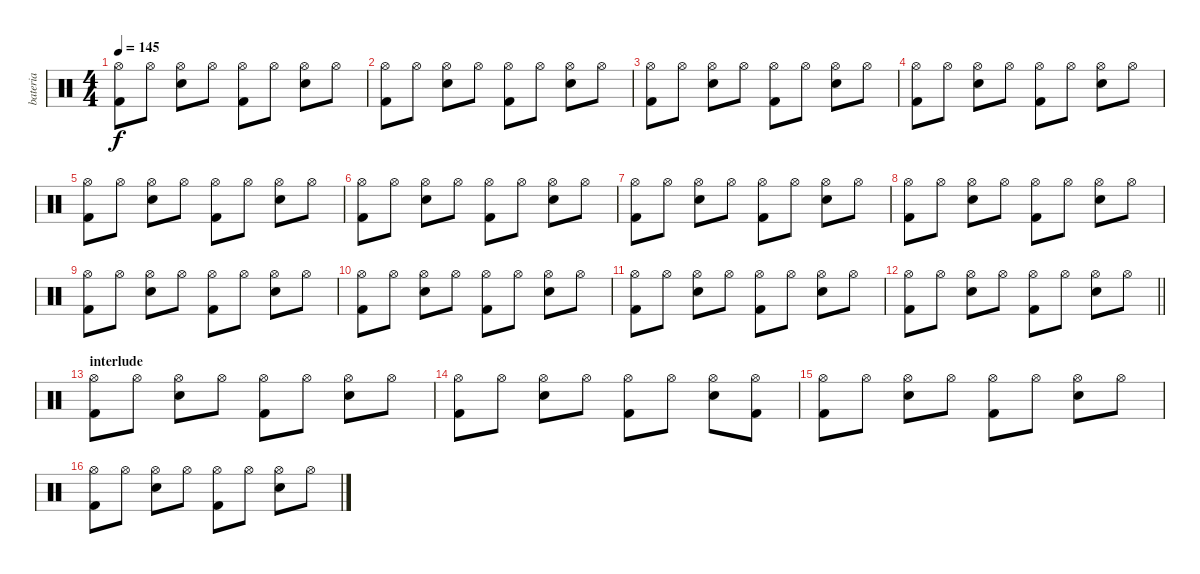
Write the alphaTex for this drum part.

\track ("bateria" "bateria") {instrument percussion}
\staff {score}
\articulation defaults
\ts (4 4)
\tempo 145
\clef neutral
\ks c
("Hi-Hat (open)" "Kick (hit) 2").8{dy f} "Hi-Hat (open)".8 ("Hi-Hat (open)" "Electric Snare (hit)").8 "Hi-Hat (open)".8 ("Hi-Hat (open)" "Kick (hit) 2").8 "Hi-Hat (open)".8 ("Hi-Hat (open)" "Electric Snare (hit)").8 "Hi-Hat (open)".8 |
("Hi-Hat (open)" "Kick (hit) 2").8 "Hi-Hat (open)".8 ("Hi-Hat (open)" "Electric Snare (hit)").8 "Hi-Hat (open)".8 ("Hi-Hat (open)" "Kick (hit) 2").8 "Hi-Hat (open)".8 ("Hi-Hat (open)" "Electric Snare (hit)").8 "Hi-Hat (open)".8 |
("Hi-Hat (open)" "Kick (hit) 2").8 "Hi-Hat (open)".8 ("Hi-Hat (open)" "Electric Snare (hit)").8 "Hi-Hat (open)".8 ("Hi-Hat (open)" "Kick (hit) 2").8 "Hi-Hat (open)".8 ("Hi-Hat (open)" "Electric Snare (hit)").8 "Hi-Hat (open)".8 |
("Hi-Hat (open)" "Kick (hit) 2").8 "Hi-Hat (open)".8 ("Hi-Hat (open)" "Electric Snare (hit)").8 "Hi-Hat (open)".8 ("Hi-Hat (open)" "Kick (hit) 2").8 "Hi-Hat (open)".8 ("Hi-Hat (open)" "Electric Snare (hit)").8 "Hi-Hat (open)".8 |
("Hi-Hat (open)" "Kick (hit) 2").8 "Hi-Hat (open)".8 ("Hi-Hat (open)" "Electric Snare (hit)").8 "Hi-Hat (open)".8 ("Hi-Hat (open)" "Kick (hit) 2").8 "Hi-Hat (open)".8 ("Hi-Hat (open)" "Electric Snare (hit)").8 "Hi-Hat (open)".8 |
("Hi-Hat (open)" "Kick (hit) 2").8 "Hi-Hat (open)".8 ("Hi-Hat (open)" "Electric Snare (hit)").8 "Hi-Hat (open)".8 ("Hi-Hat (open)" "Kick (hit) 2").8 "Hi-Hat (open)".8 ("Hi-Hat (open)" "Electric Snare (hit)").8 "Hi-Hat (open)".8 |
("Hi-Hat (open)" "Kick (hit) 2").8 "Hi-Hat (open)".8 ("Hi-Hat (open)" "Electric Snare (hit)").8 "Hi-Hat (open)".8 ("Hi-Hat (open)" "Kick (hit) 2").8 "Hi-Hat (open)".8 ("Hi-Hat (open)" "Electric Snare (hit)").8 "Hi-Hat (open)".8 |
("Hi-Hat (open)" "Kick (hit) 2").8 "Hi-Hat (open)".8 ("Hi-Hat (open)" "Electric Snare (hit)").8 "Hi-Hat (open)".8 ("Hi-Hat (open)" "Kick (hit) 2").8 "Hi-Hat (open)".8 ("Hi-Hat (open)" "Electric Snare (hit)").8 "Hi-Hat (open)".8 |
("Hi-Hat (open)" "Kick (hit) 2").8 "Hi-Hat (open)".8 ("Hi-Hat (open)" "Electric Snare (hit)").8 "Hi-Hat (open)".8 ("Hi-Hat (open)" "Kick (hit) 2").8 "Hi-Hat (open)".8 ("Hi-Hat (open)" "Electric Snare (hit)").8 "Hi-Hat (open)".8 |
("Hi-Hat (open)" "Kick (hit) 2").8 "Hi-Hat (open)".8 ("Hi-Hat (open)" "Electric Snare (hit)").8 "Hi-Hat (open)".8 ("Hi-Hat (open)" "Kick (hit) 2").8 "Hi-Hat (open)".8 ("Hi-Hat (open)" "Electric Snare (hit)").8 "Hi-Hat (open)".8 |
("Hi-Hat (open)" "Kick (hit) 2").8 "Hi-Hat (open)".8 ("Hi-Hat (open)" "Electric Snare (hit)").8 "Hi-Hat (open)".8 ("Hi-Hat (open)" "Kick (hit) 2").8 "Hi-Hat (open)".8 ("Hi-Hat (open)" "Electric Snare (hit)").8 "Hi-Hat (open)".8 |
\barLineRight lightlight
("Hi-Hat (open)" "Kick (hit) 2").8 "Hi-Hat (open)".8 ("Hi-Hat (open)" "Electric Snare (hit)").8 "Hi-Hat (open)".8 ("Hi-Hat (open)" "Kick (hit) 2").8 "Hi-Hat (open)".8 ("Hi-Hat (open)" "Electric Snare (hit)").8 "Hi-Hat (open)".8 |
\section ("" "interlude")
("Hi-Hat (open)" "Kick (hit) 2").8 "Hi-Hat (open)".8 ("Hi-Hat (open)" "Electric Snare (hit)").8 "Hi-Hat (open)".8 ("Hi-Hat (open)" "Kick (hit) 2").8 "Hi-Hat (open)".8 ("Hi-Hat (open)" "Electric Snare (hit)").8 "Hi-Hat (open)".8 |
("Hi-Hat (open)" "Kick (hit) 2").8 "Hi-Hat (open)".8 ("Hi-Hat (open)" "Electric Snare (hit)").8 "Hi-Hat (open)".8 ("Hi-Hat (open)" "Kick (hit) 2").8 "Hi-Hat (open)".8 ("Hi-Hat (open)" "Electric Snare (hit)").8 ("Hi-Hat (open)" "Kick (hit) 2").8 |
("Hi-Hat (open)" "Kick (hit) 2").8 "Hi-Hat (open)".8 ("Hi-Hat (open)" "Electric Snare (hit)").8 "Hi-Hat (open)".8 ("Hi-Hat (open)" "Kick (hit) 2").8 "Hi-Hat (open)".8 ("Hi-Hat (open)" "Electric Snare (hit)").8 "Hi-Hat (open)".8 |
("Hi-Hat (open)" "Kick (hit) 2").8 "Hi-Hat (open)".8 ("Hi-Hat (open)" "Electric Snare (hit)").8 "Hi-Hat (open)".8 ("Hi-Hat (open)" "Kick (hit) 2").8 "Hi-Hat (open)".8 ("Hi-Hat (open)" "Electric Snare (hit)").8 "Hi-Hat (open)".8
